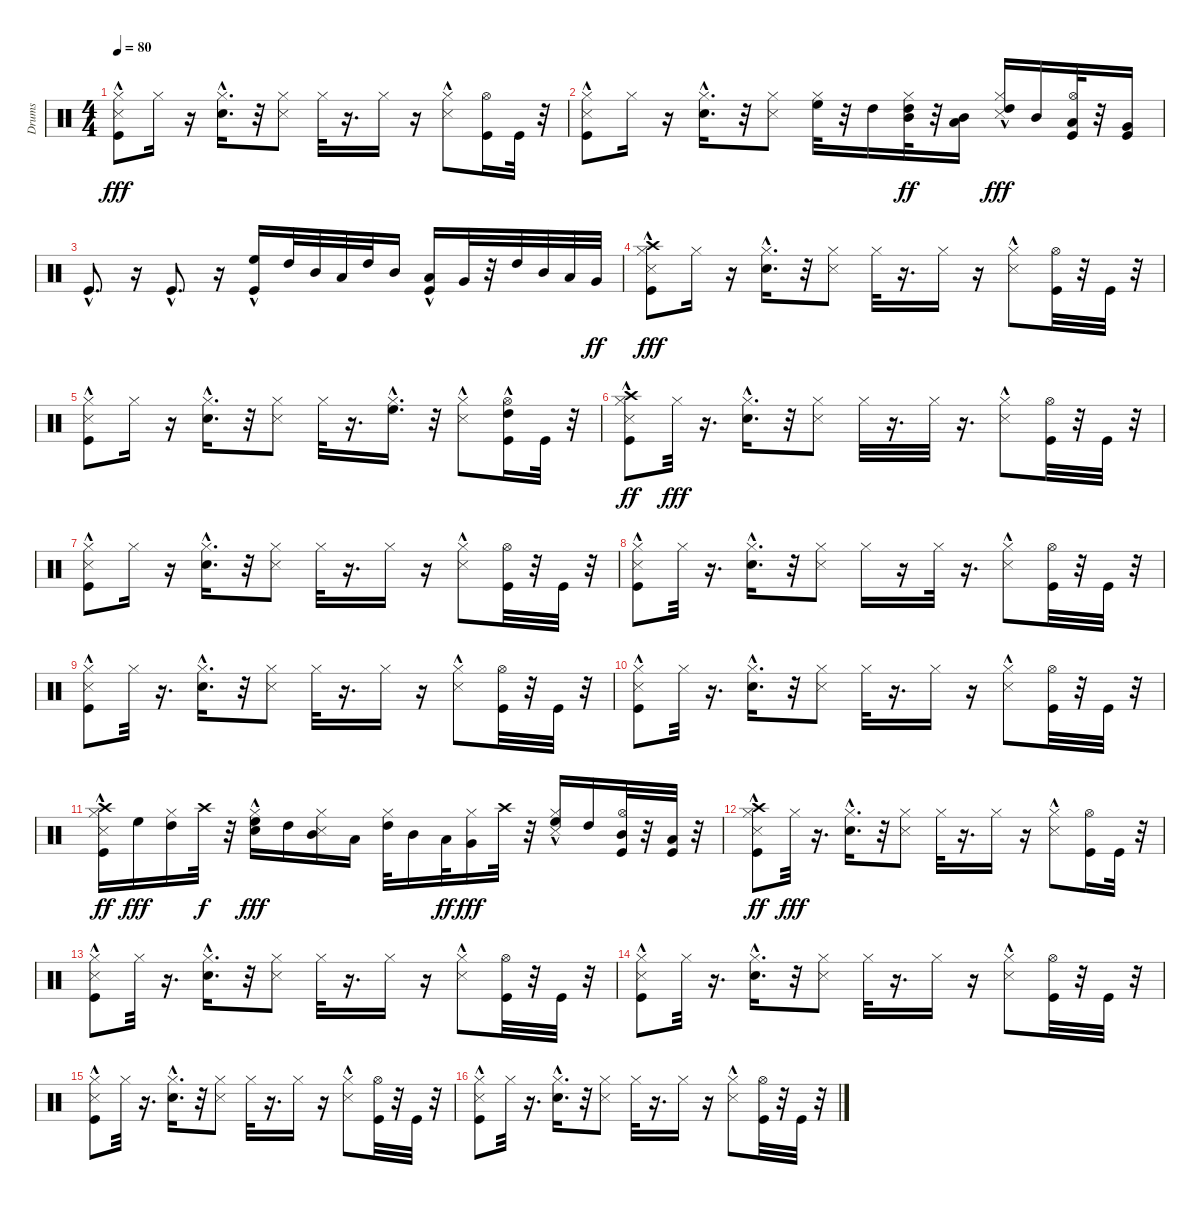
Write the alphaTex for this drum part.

\track ("Drums" "Drums") {instrument percussion}
\staff {score}
\articulation defaults
\ts (4 4)
\tempo 80
\clef neutral
\ks c
("Snare (side stick) 3" "Kick (hit)"{hac} "Hi-Hat (closed)").8{dy fff} "Hi-Hat (closed)".16 r.16 ("Electric Snare (hit)"{hac} "Hi-Hat (closed)").16{d} r.32 ("Snare (side stick) 3" "Hi-Hat (closed)").8 "Hi-Hat (closed)".32 r.16{d} "Hi-Hat (closed)".16 r.16 ("Hi-Hat (closed)" "Snare (side stick) 3"{hac}).8 ("Hi-Hat (open)" "Kick (hit)").16 "Kick (hit)".32 r.32 |
("Snare (side stick) 3" "Kick (hit)"{hac} "Hi-Hat (closed)").8 "Hi-Hat (closed)".16 r.16 ("Electric Snare (hit)"{hac} "Hi-Hat (closed)").16{d} r.32 ("Snare (side stick) 3" "Hi-Hat (closed)").8 ("Hi-Hat (closed)" "High Floor Tom (hit)").32 r.32 "High Tom (hit)".16 ("Hi-Hat (closed)" "High Tom (hit)" "Mid Tom (hit)").32{dy ff} r.32 ("Low Tom (hit)" "Mid Tom (hit)").16 ("Snare (side stick) 3"{hac} "Hi-Hat (closed)" "High Tom (hit)").16{dy fff} "Mid Tom (hit)".16 ("Hi-Hat (open)" "Kick (hit)" "Low Tom (hit)").32 r.32 ("Very Low Tom (hit)" "Kick (hit)").16 |
"Kick (hit)"{hac}.8{d} r.16 "Kick (hit)"{hac}.8{d} r.16 ("Kick (hit)"{hac} "High Floor Tom (hit)").16 "High Tom (hit)".32 "Mid Tom (hit)".32 "Low Tom (hit)".32 "High Tom (hit)".32 "Mid Tom (hit)".16 ("Kick (hit)"{hac} "Low Tom (hit)").16 "Very Low Tom (hit)".32 r.32 "High Tom (hit)".32 "Mid Tom (hit)".32 "Low Tom (hit)".32 "Very Low Tom (hit)".32{dy ff} |
("Snare (side stick) 3" "Kick (hit)"{hac} "Hi-Hat (closed)" "Crash high (hit)"{hac}).8{dy fff} "Hi-Hat (closed)".16 r.16 ("Electric Snare (hit)"{hac} "Hi-Hat (closed)").16{d} r.32 ("Hi-Hat (closed)" "Snare (side stick) 3").8 "Hi-Hat (closed)".32 r.16{d} "Hi-Hat (closed)".16 r.16 ("Snare (side stick) 3"{hac} "Hi-Hat (closed)").8 ("Kick (hit)" "Hi-Hat (open)").32 r.32 "Kick (hit)".32 r.32 |
("Snare (side stick) 3" "Kick (hit)"{hac} "Hi-Hat (closed)").8 "Hi-Hat (closed)".16 r.16 ("Electric Snare (hit)"{hac} "Hi-Hat (closed)").16{d} r.32 ("Snare (side stick) 3" "Hi-Hat (closed)").8 "Hi-Hat (closed)".32 r.16{d} ("High Floor Tom (hit)"{hac} "Hi-Hat (closed)").16{d} r.32 ("Snare (side stick) 3"{hac} "Hi-Hat (closed)").8 ("Hi-Hat (open)" "Kick (hit)" "High Tom (hit)"{hac}).16 "Kick (hit)".32 r.32 |
("Snare (side stick) 3" "Kick (hit)"{hac} "Hi-Hat (closed)" "Crash high (hit)"{hac}).8{dy ff} "Hi-Hat (closed)".32{dy fff} r.16{d} ("Electric Snare (hit)"{hac} "Hi-Hat (closed)").16{d} r.32 ("Snare (side stick) 3" "Hi-Hat (closed)").8 "Hi-Hat (closed)".32 r.16{d} "Hi-Hat (closed)".32 r.16{d} ("Snare (side stick) 3"{hac} "Hi-Hat (closed)").8 ("Kick (hit)" "Hi-Hat (open)").32 r.32 "Kick (hit)".32 r.32 |
("Snare (side stick) 3" "Kick (hit)"{hac} "Hi-Hat (closed)").8 "Hi-Hat (closed)".16 r.16 ("Electric Snare (hit)"{hac} "Hi-Hat (closed)").16{d} r.32 ("Snare (side stick) 3" "Hi-Hat (closed)").8 "Hi-Hat (closed)".32 r.16{d} "Hi-Hat (closed)".16 r.16 ("Snare (side stick) 3"{hac} "Hi-Hat (closed)").8 ("Kick (hit)" "Hi-Hat (open)").32 r.32 "Kick (hit)".32 r.32 |
("Snare (side stick) 3" "Kick (hit)"{hac} "Hi-Hat (closed)").8 "Hi-Hat (closed)".32 r.16{d} ("Hi-Hat (closed)" "Electric Snare (hit)"{hac}).16{d} r.32 ("Snare (side stick) 3" "Hi-Hat (closed)").8 "Hi-Hat (closed)".16 r.16 "Hi-Hat (closed)".32 r.16{d} ("Snare (side stick) 3"{hac} "Hi-Hat (closed)").8 ("Hi-Hat (open)" "Kick (hit)").32 r.32 "Kick (hit)".32 r.32 |
("Snare (side stick) 3" "Kick (hit)"{hac} "Hi-Hat (closed)").8 "Hi-Hat (closed)".32 r.16{d} ("Electric Snare (hit)"{hac} "Hi-Hat (closed)").16{d} r.32 ("Snare (side stick) 3" "Hi-Hat (closed)").8 "Hi-Hat (closed)".32 r.16{d} "Hi-Hat (closed)".16 r.16 ("Hi-Hat (closed)" "Snare (side stick) 3"{hac}).8 ("Hi-Hat (open)" "Kick (hit)").32 r.32 "Kick (hit)".32 r.32 |
("Snare (side stick) 3" "Kick (hit)"{hac} "Hi-Hat (closed)").8 "Hi-Hat (closed)".32 r.16{d} ("Electric Snare (hit)"{hac} "Hi-Hat (closed)").16{d} r.32 ("Snare (side stick) 3" "Hi-Hat (closed)").8 "Hi-Hat (closed)".32 r.16{d} "Hi-Hat (closed)".16 r.16 ("Snare (side stick) 3"{hac} "Hi-Hat (closed)").8 ("Hi-Hat (open)" "Kick (hit)").32 r.32 "Kick (hit)".32 r.32 |
("Snare (side stick) 3" "Kick (hit)"{hac} "Hi-Hat (closed)" "Crash high (hit)").16{dy ff} "High Floor Tom (hit)".16{dy fff} ("High Tom (hit)" "Hi-Hat (closed)").16 "Crash high (hit)".32{dy f} r.32 ("Hi-Hat (closed)" "High Floor Tom (hit)" "Electric Snare (hit)"{hac}).16{dy fff} "High Tom (hit)".16 ("Mid Tom (hit)" "Snare (side stick) 3" "Hi-Hat (closed)").16 "Low Tom (hit)".16 ("Hi-Hat (closed)" "High Tom (hit)").32 "Mid Tom (hit)".16 "Low Tom (hit)".32{dy ff} ("Very Low Tom (hit)" "Hi-Hat (closed)").16{dy fff} "Crash high (hit)".32 r.32 ("Snare (side stick) 3"{hac} "Hi-Hat (closed)" "High Floor Tom (hit)").16 "High Tom (hit)".16 ("Hi-Hat (open)" "Kick (hit)" "Mid Tom (hit)").32 r.32 ("Kick (hit)" "Low Tom (hit)").32 r.32 |
("Snare (side stick) 3" "Kick (hit)"{hac} "Hi-Hat (closed)" "Crash high (hit)"{hac}).8{dy ff} "Hi-Hat (closed)".32{dy fff} r.16{d} ("Electric Snare (hit)"{hac} "Hi-Hat (closed)").16{d} r.32 ("Snare (side stick) 3" "Hi-Hat (closed)").8 "Hi-Hat (closed)".32 r.16{d} "Hi-Hat (closed)".16 r.16 ("Hi-Hat (closed)" "Snare (side stick) 3"{hac}).8 ("Hi-Hat (open)" "Kick (hit)").16 "Kick (hit)".32 r.32 |
("Snare (side stick) 3" "Kick (hit)"{hac} "Hi-Hat (closed)").8 "Hi-Hat (closed)".32 r.16{d} ("Electric Snare (hit)"{hac} "Hi-Hat (closed)").16{d} r.32 ("Snare (side stick) 3" "Hi-Hat (closed)").8 "Hi-Hat (closed)".32 r.16{d} "Hi-Hat (closed)".16 r.16 ("Snare (side stick) 3"{hac} "Hi-Hat (closed)").8 ("Hi-Hat (open)" "Kick (hit)").32 r.32 "Kick (hit)".32 r.32 |
("Snare (side stick) 3" "Kick (hit)"{hac} "Hi-Hat (closed)").8 "Hi-Hat (closed)".32 r.16{d} ("Electric Snare (hit)"{hac} "Hi-Hat (closed)").16{d} r.32 ("Snare (side stick) 3" "Hi-Hat (closed)").8 "Hi-Hat (closed)".32 r.16{d} "Hi-Hat (closed)".16 r.16 ("Snare (side stick) 3"{hac} "Hi-Hat (closed)").8 ("Hi-Hat (open)" "Kick (hit)").32 r.32 "Kick (hit)".32 r.32 |
("Snare (side stick) 3" "Kick (hit)"{hac} "Hi-Hat (closed)").8 "Hi-Hat (closed)".32 r.16{d} ("Electric Snare (hit)"{hac} "Hi-Hat (closed)").16{d} r.32 ("Snare (side stick) 3" "Hi-Hat (closed)").8 "Hi-Hat (closed)".32 r.16{d} "Hi-Hat (closed)".16 r.16 ("Snare (side stick) 3"{hac} "Hi-Hat (closed)").8 ("Hi-Hat (open)" "Kick (hit)").32 r.32 "Kick (hit)".32 r.32 |
("Snare (side stick) 3" "Kick (hit)"{hac} "Hi-Hat (closed)").8 "Hi-Hat (closed)".32 r.16{d} ("Electric Snare (hit)"{hac} "Hi-Hat (closed)").16{d} r.32 ("Snare (side stick) 3" "Hi-Hat (closed)").8 "Hi-Hat (closed)".32 r.16{d} "Hi-Hat (closed)".16 r.16 ("Hi-Hat (closed)" "Snare (side stick) 3"{hac}).8 ("Kick (hit)" "Hi-Hat (open)").32 r.32 "Kick (hit)".32 r.32
